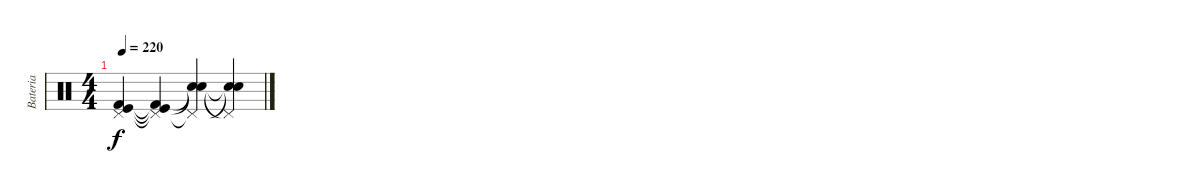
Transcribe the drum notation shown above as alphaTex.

\track ("Bateria" "Bateria") {instrument percussion}
\staff {score}
\articulation defaults
\ts (4 4)
\tempo 220
\clef neutral
\ks c
("Pedal Hi-Hat (hit)"{t} "Kick (hit) 2"{t} "Kick (hit)"{t}).4{dy f} ("Pedal Hi-Hat (hit)"{t} "Kick (hit) 2"{t} "Kick (hit)"{t}).4 ("Pedal Hi-Hat (hit)"{t} "Snare (hit) 2"{t} "Electric Snare (hit)"{t}).4 ("Snare (hit)"{t} "Snare (hit)"{t} "Pedal Hi-Hat (hit)"{t}).4
